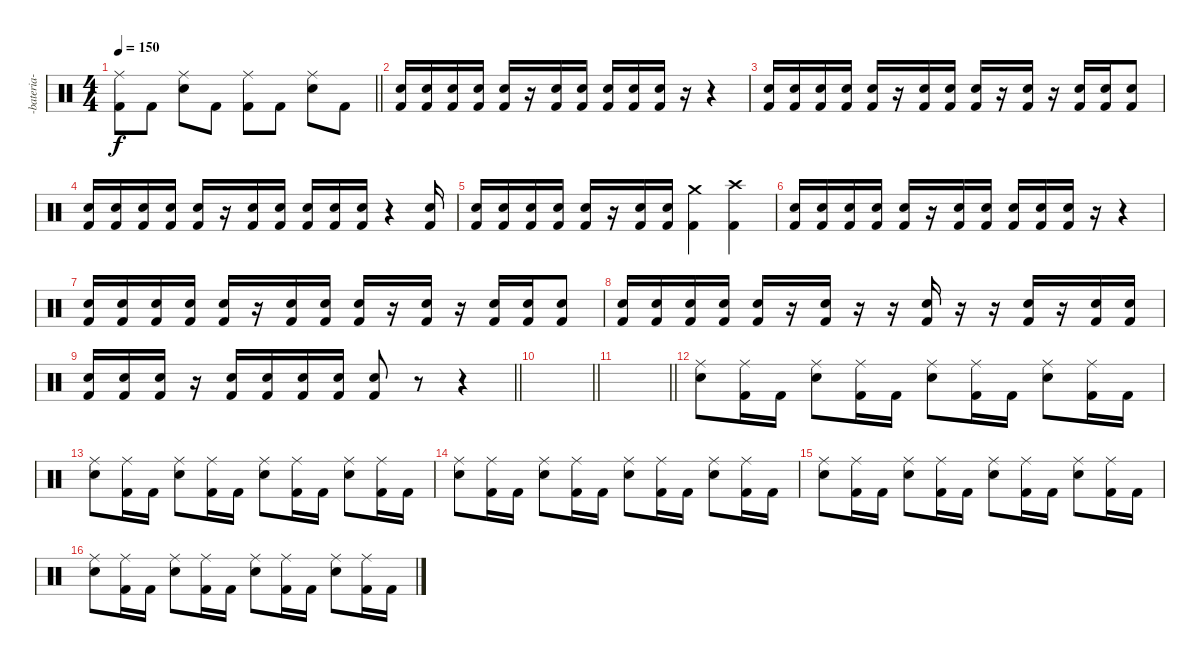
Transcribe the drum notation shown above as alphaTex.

\track ("-bateria-" "-bateria-") {instrument percussion}
\staff {score}
\articulation defaults
\ts (4 4)
\tempo 150
\clef neutral
\barLineRight lightlight
\ks c
("Ride (middle)" "Kick (hit) 2").8{dy f} "Kick (hit) 2".8 ("Ride (middle)" "Electric Snare (hit)").8 "Kick (hit) 2".8 ("Ride (middle)" "Kick (hit) 2").8 "Kick (hit) 2".8 ("Ride (middle)" "Electric Snare (hit)").8 "Kick (hit) 2".8 |
\section ("" "")
("Snare (hit) 2" "Kick (hit) 2").16 ("Snare (hit) 2" "Kick (hit) 2").16 ("Snare (hit) 2" "Kick (hit) 2").16 ("Snare (hit) 2" "Kick (hit) 2").16 ("Snare (hit) 2" "Kick (hit) 2").16 r.16 ("Snare (hit) 2" "Kick (hit) 2").16 ("Snare (hit) 2" "Kick (hit) 2").16 ("Snare (hit) 2" "Kick (hit) 2").16 ("Snare (hit) 2" "Kick (hit) 2").16 ("Snare (hit) 2" "Kick (hit) 2").16 r.16 r.4 |
("Snare (hit) 2" "Kick (hit) 2").16 ("Snare (hit) 2" "Kick (hit) 2").16 ("Snare (hit) 2" "Kick (hit) 2").16 ("Snare (hit) 2" "Kick (hit) 2").16 ("Snare (hit) 2" "Kick (hit) 2").16 r.16 ("Snare (hit) 2" "Kick (hit) 2").16 ("Snare (hit) 2" "Kick (hit) 2").16 ("Snare (hit) 2" "Kick (hit) 2").16 r.16 ("Snare (hit) 2" "Kick (hit) 2").16 r.16 ("Snare (hit) 2" "Kick (hit) 2").16 ("Snare (hit) 2" "Kick (hit) 2").16 ("Snare (hit) 2" "Kick (hit) 2").8 |
("Snare (hit) 2" "Kick (hit) 2").16 ("Snare (hit) 2" "Kick (hit) 2").16 ("Snare (hit) 2" "Kick (hit) 2").16 ("Snare (hit) 2" "Kick (hit) 2").16 ("Snare (hit) 2" "Kick (hit) 2").16 r.16 ("Snare (hit) 2" "Kick (hit) 2").16 ("Snare (hit) 2" "Kick (hit) 2").16 ("Snare (hit) 2" "Kick (hit) 2").16 ("Snare (hit) 2" "Kick (hit) 2").16 ("Snare (hit) 2" "Kick (hit) 2").16 r.4 ("Snare (hit) 2" "Kick (hit) 2").16 |
("Snare (hit) 2" "Kick (hit) 2").16 ("Snare (hit) 2" "Kick (hit) 2").16 ("Snare (hit) 2" "Kick (hit) 2").16 ("Snare (hit) 2" "Kick (hit) 2").16 ("Snare (hit) 2" "Kick (hit) 2").16 r.16 ("Snare (hit) 2" "Kick (hit) 2").16 ("Snare (hit) 2" "Kick (hit) 2").16 ("Crash medium (hit)" "Kick (hit) 2").4 ("Crash high (hit)" "Kick (hit) 2").4 |
("Snare (hit) 2" "Kick (hit) 2").16 ("Snare (hit) 2" "Kick (hit) 2").16 ("Snare (hit) 2" "Kick (hit) 2").16 ("Snare (hit) 2" "Kick (hit) 2").16 ("Snare (hit) 2" "Kick (hit) 2").16 r.16 ("Snare (hit) 2" "Kick (hit) 2").16 ("Snare (hit) 2" "Kick (hit) 2").16 ("Snare (hit) 2" "Kick (hit) 2").16 ("Snare (hit) 2" "Kick (hit) 2").16 ("Snare (hit) 2" "Kick (hit) 2").16 r.16 r.4 |
("Snare (hit) 2" "Kick (hit) 2").16 ("Snare (hit) 2" "Kick (hit) 2").16 ("Snare (hit) 2" "Kick (hit) 2").16 ("Snare (hit) 2" "Kick (hit) 2").16 ("Snare (hit) 2" "Kick (hit) 2").16 r.16 ("Snare (hit) 2" "Kick (hit) 2").16 ("Snare (hit) 2" "Kick (hit) 2").16 ("Snare (hit) 2" "Kick (hit) 2").16 r.16 ("Snare (hit) 2" "Kick (hit) 2").16 r.16 ("Snare (hit) 2" "Kick (hit) 2").16 ("Snare (hit) 2" "Kick (hit) 2").16 ("Snare (hit) 2" "Kick (hit) 2").8 |
("Snare (hit) 2" "Kick (hit) 2").16 ("Snare (hit) 2" "Kick (hit) 2").16 ("Snare (hit) 2" "Kick (hit) 2").16 ("Snare (hit) 2" "Kick (hit) 2").16 ("Snare (hit) 2" "Kick (hit) 2").16 r.16 ("Snare (hit) 2" "Kick (hit) 2").16 r.16 r.16 ("Snare (hit) 2" "Kick (hit) 2").16 r.16 r.16 ("Snare (hit) 2" "Kick (hit) 2").16 r.16 ("Snare (hit) 2" "Kick (hit) 2").16 ("Snare (hit) 2" "Kick (hit) 2").16 |
\barLineRight lightlight
("Snare (hit) 2" "Kick (hit) 2").16 ("Snare (hit) 2" "Kick (hit) 2").16 ("Snare (hit) 2" "Kick (hit) 2").16 r.16 ("Snare (hit) 2" "Kick (hit) 2").16 ("Snare (hit) 2" "Kick (hit) 2").16 ("Snare (hit) 2" "Kick (hit) 2").16 ("Snare (hit) 2" "Kick (hit) 2").16 ("Snare (hit) 2" "Kick (hit) 2").8 r.8 r.4 |
\barLineRight lightlight
|
\barLineRight lightlight
|
\section ("" "")
("Ride (middle)" "Electric Snare (hit)").8 ("Ride (middle)" "Kick (hit) 2").16 "Kick (hit) 2".16 ("Ride (middle)" "Electric Snare (hit)").8 ("Ride (middle)" "Kick (hit) 2").16 "Kick (hit) 2".16 ("Ride (middle)" "Electric Snare (hit)").8 ("Ride (middle)" "Kick (hit) 2").16 "Kick (hit) 2".16 ("Ride (middle)" "Electric Snare (hit)").8 ("Ride (middle)" "Kick (hit) 2").16 "Kick (hit) 2".16 |
("Ride (middle)" "Electric Snare (hit)").8 ("Ride (middle)" "Kick (hit) 2").16 "Kick (hit) 2".16 ("Ride (middle)" "Electric Snare (hit)").8 ("Ride (middle)" "Kick (hit) 2").16 "Kick (hit) 2".16 ("Ride (middle)" "Electric Snare (hit)").8 ("Ride (middle)" "Kick (hit) 2").16 "Kick (hit) 2".16 ("Ride (middle)" "Electric Snare (hit)").8 ("Ride (middle)" "Kick (hit) 2").16 "Kick (hit) 2".16 |
("Ride (middle)" "Electric Snare (hit)").8 ("Ride (middle)" "Kick (hit) 2").16 "Kick (hit) 2".16 ("Ride (middle)" "Electric Snare (hit)").8 ("Ride (middle)" "Kick (hit) 2").16 "Kick (hit) 2".16 ("Ride (middle)" "Electric Snare (hit)").8 ("Ride (middle)" "Kick (hit) 2").16 "Kick (hit) 2".16 ("Ride (middle)" "Electric Snare (hit)").8 ("Ride (middle)" "Kick (hit) 2").16 "Kick (hit) 2".16 |
("Ride (middle)" "Electric Snare (hit)").8 ("Ride (middle)" "Kick (hit) 2").16 "Kick (hit) 2".16 ("Ride (middle)" "Electric Snare (hit)").8 ("Ride (middle)" "Kick (hit) 2").16 "Kick (hit) 2".16 ("Ride (middle)" "Electric Snare (hit)").8 ("Ride (middle)" "Kick (hit) 2").16 "Kick (hit) 2".16 ("Ride (middle)" "Electric Snare (hit)").8 ("Ride (middle)" "Kick (hit) 2").16 "Kick (hit) 2".16 |
("Ride (middle)" "Electric Snare (hit)").8 ("Ride (middle)" "Kick (hit) 2").16 "Kick (hit) 2".16 ("Ride (middle)" "Electric Snare (hit)").8 ("Ride (middle)" "Kick (hit) 2").16 "Kick (hit) 2".16 ("Ride (middle)" "Electric Snare (hit)").8 ("Ride (middle)" "Kick (hit) 2").16 "Kick (hit) 2".16 ("Ride (middle)" "Electric Snare (hit)").8 ("Ride (middle)" "Kick (hit) 2").16 "Kick (hit) 2".16
